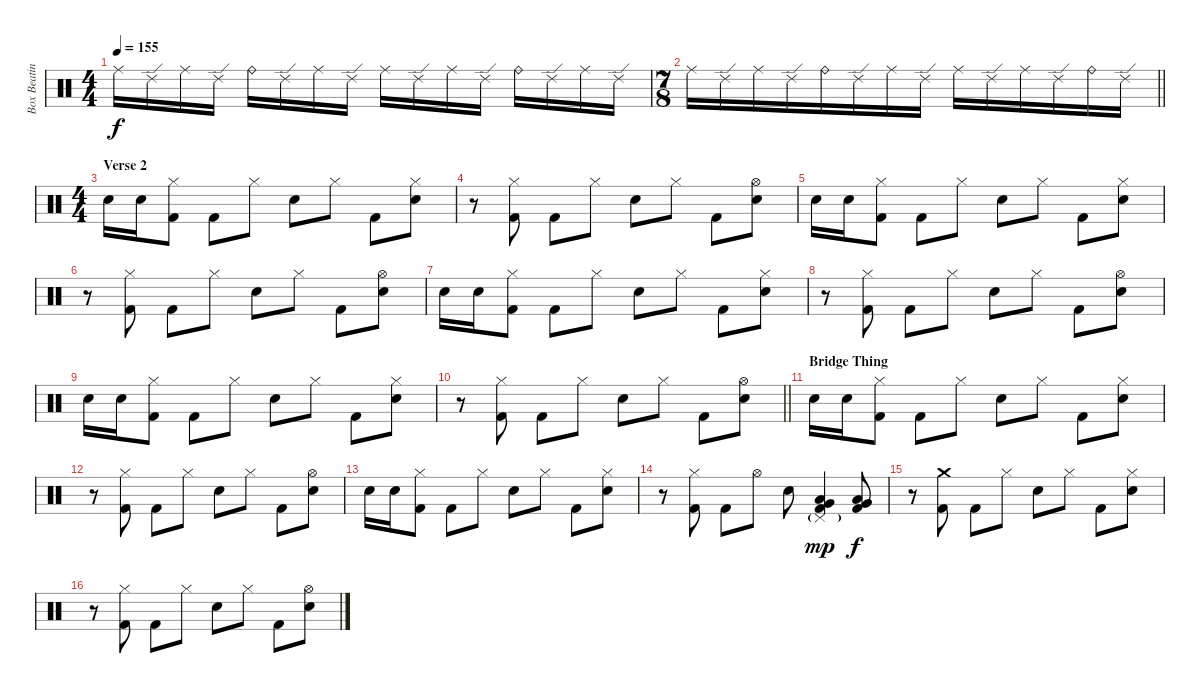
\track ("Box Beating" "Box Beatin") {instrument percussion}
\staff {score}
\articulation defaults
\ts (4 4)
\tempo 155
\clef neutral
\ks c "Ride (middle)".16{dy f} "Ride (edge) 2".16 "Ride (middle)".16 "Ride (edge) 2".16 "Ride (bell)".16 "Ride (edge) 2".16 "Ride (middle)".16 "Ride (edge) 2".16 "Ride (middle)".16 "Ride (edge) 2".16 "Ride (middle)".16 "Ride (edge) 2".16 "Ride (bell)".16 "Ride (edge) 2".16 "Ride (middle)".16 "Ride (edge) 2".16
|
\ts (7 8)
\barLineRight lightlight "Ride (middle)".16 "Ride (edge) 2".16 "Ride (middle)".16 "Ride (edge) 2".16 "Ride (bell)".16 "Ride (edge) 2".16 "Ride (middle)".16 "Ride (edge) 2".16 "Ride (middle)".16 "Ride (edge) 2".16 "Ride (middle)".16 "Ride (edge) 2".16 "Ride (bell)".16 "Ride (edge) 2".16
|
\ts (4 4)
\section ("" "Verse 2")
"Electric Snare (hit)".16 "Electric Snare (hit)".16 ("Hi-Hat (closed)" "Kick (hit) 2").8 "Kick (hit) 2".8 "Hi-Hat (closed)".8 "Electric Snare (hit)".8 "Hi-Hat (closed)".8 "Kick (hit) 2".8 ("Hi-Hat (closed)" "Electric Snare (hit)").8 |
r.8 ("Hi-Hat (closed)" "Kick (hit) 2").8 "Kick (hit) 2".8 "Hi-Hat (closed)".8 "Electric Snare (hit)".8 "Hi-Hat (closed)".8 "Kick (hit) 2".8 ("Hi-Hat (open)" "Electric Snare (hit)").8 |
"Electric Snare (hit)".16 "Electric Snare (hit)".16 ("Hi-Hat (closed)" "Kick (hit) 2").8 "Kick (hit) 2".8 "Hi-Hat (closed)".8 "Electric Snare (hit)".8 "Hi-Hat (closed)".8 "Kick (hit) 2".8 ("Hi-Hat (closed)" "Electric Snare (hit)").8 |
r.8 ("Hi-Hat (closed)" "Kick (hit) 2").8 "Kick (hit) 2".8 "Hi-Hat (closed)".8 "Electric Snare (hit)".8 "Hi-Hat (closed)".8 "Kick (hit) 2".8 ("Hi-Hat (open)" "Electric Snare (hit)").8 |
"Electric Snare (hit)".16 "Electric Snare (hit)".16 ("Hi-Hat (closed)" "Kick (hit) 2").8 "Kick (hit) 2".8 "Hi-Hat (closed)".8 "Electric Snare (hit)".8 "Hi-Hat (closed)".8 "Kick (hit) 2".8 ("Hi-Hat (closed)" "Electric Snare (hit)").8 |
r.8 ("Hi-Hat (closed)" "Kick (hit) 2").8 "Kick (hit) 2".8 "Hi-Hat (closed)".8 "Electric Snare (hit)".8 "Hi-Hat (closed)".8 "Kick (hit) 2".8 ("Hi-Hat (open)" "Electric Snare (hit)").8 |
"Electric Snare (hit)".16 "Electric Snare (hit)".16 ("Hi-Hat (closed)" "Kick (hit) 2").8 "Kick (hit) 2".8 "Hi-Hat (closed)".8 "Electric Snare (hit)".8 "Hi-Hat (closed)".8 "Kick (hit) 2".8 ("Hi-Hat (closed)" "Electric Snare (hit)").8 |
\barLineRight lightlight
r.8 ("Hi-Hat (closed)" "Kick (hit) 2").8 "Kick (hit) 2".8 "Hi-Hat (closed)".8 "Electric Snare (hit)".8 "Hi-Hat (closed)".8 "Kick (hit) 2".8 ("Hi-Hat (open)" "Electric Snare (hit)").8 |
\section ("" "Bridge Thing")
"Electric Snare (hit)".16 "Electric Snare (hit)".16 ("Hi-Hat (closed)" "Kick (hit) 2").8 "Kick (hit) 2".8 "Hi-Hat (closed)".8 "Electric Snare (hit)".8 "Hi-Hat (closed)".8 "Kick (hit) 2".8 ("Hi-Hat (closed)" "Electric Snare (hit)").8 |
r.8 ("Hi-Hat (closed)" "Kick (hit) 2").8 "Kick (hit) 2".8 "Hi-Hat (closed)".8 "Electric Snare (hit)".8 "Hi-Hat (closed)".8 "Kick (hit) 2".8 ("Hi-Hat (open)" "Electric Snare (hit)").8 |
"Electric Snare (hit)".16 "Electric Snare (hit)".16 ("Hi-Hat (closed)" "Kick (hit) 2").8 "Kick (hit) 2".8 "Hi-Hat (closed)".8 "Electric Snare (hit)".8 "Hi-Hat (closed)".8 "Kick (hit) 2".8 ("Hi-Hat (closed)" "Electric Snare (hit)").8 |
r.8 ("Hi-Hat (closed)" "Kick (hit) 2").8 "Kick (hit) 2".8 "Hi-Hat (open)".8 "Electric Snare (hit)".8 ("Pedal Hi-Hat (hit)"{g} "Very Low Tom (hit)" "Low Floor Tom (hit)" "Kick (hit) 2").4{dy mp} ("Very Low Tom (hit)" "Low Floor Tom (hit)" "Kick (hit) 2").8{dy f} |
r.8 ("Crash medium (hit)" "Kick (hit) 2").8 "Kick (hit) 2".8 "Hi-Hat (closed)".8 "Electric Snare (hit)".8 "Hi-Hat (closed)".8 "Kick (hit) 2".8 ("Hi-Hat (closed)" "Electric Snare (hit)").8 |
r.8 ("Hi-Hat (closed)" "Kick (hit) 2").8 "Kick (hit) 2".8 "Hi-Hat (closed)".8 "Electric Snare (hit)".8 "Hi-Hat (closed)".8 "Kick (hit) 2".8 ("Hi-Hat (open)" "Electric Snare (hit)").8
